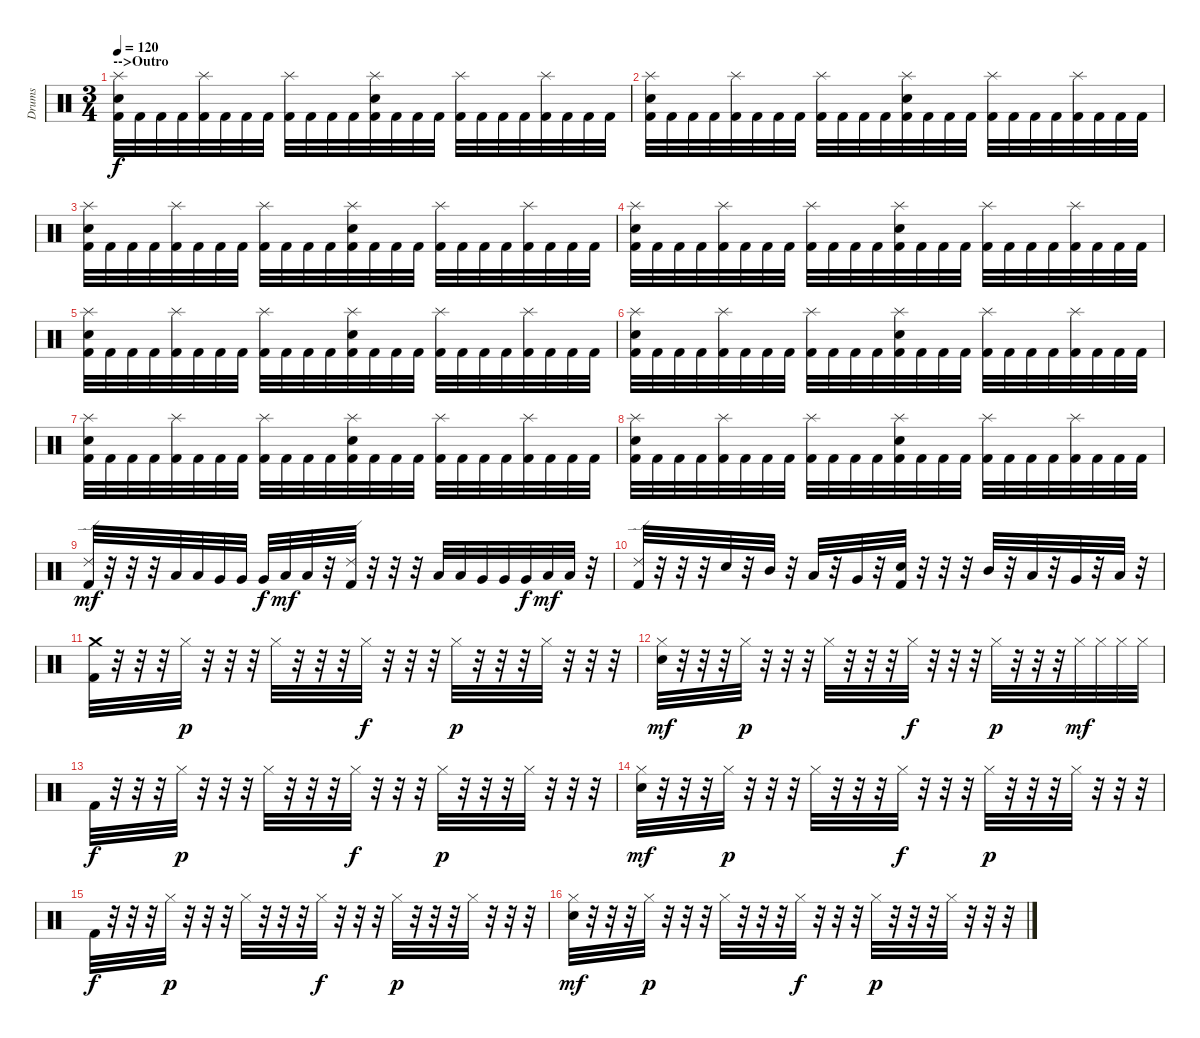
\track ("Drums" "Drums") {instrument percussion}
\staff {score}
\articulation defaults
\ts (3 4)
\section ("" "-->Outro")
\tempo 120
\clef neutral
\ks c
("Kick (hit) 2" "Splash (hit)" "Snare (hit) 2").32{dy f volume 10} "Kick (hit) 2".32 "Kick (hit) 2".32 "Kick (hit) 2".32 ("Kick (hit) 2" "Splash (hit)").32 "Kick (hit) 2".32 "Kick (hit) 2".32 "Kick (hit) 2".32 ("Kick (hit) 2" "Splash (hit)").32 "Kick (hit) 2".32 "Kick (hit) 2".32 "Kick (hit) 2".32 ("Kick (hit) 2" "Splash (hit)" "Snare (hit) 2").32 "Kick (hit) 2".32 "Kick (hit) 2".32 "Kick (hit) 2".32 ("Kick (hit) 2" "Splash (hit)").32 "Kick (hit) 2".32 "Kick (hit) 2".32 "Kick (hit) 2".32 ("Kick (hit) 2" "Splash (hit)").32 "Kick (hit) 2".32 "Kick (hit) 2".32 "Kick (hit) 2".32 |
("Kick (hit) 2" "Splash (hit)" "Snare (hit) 2").32 "Kick (hit) 2".32 "Kick (hit) 2".32 "Kick (hit) 2".32 ("Kick (hit) 2" "Splash (hit)").32 "Kick (hit) 2".32 "Kick (hit) 2".32 "Kick (hit) 2".32 ("Kick (hit) 2" "Splash (hit)").32 "Kick (hit) 2".32 "Kick (hit) 2".32 "Kick (hit) 2".32 ("Kick (hit) 2" "Splash (hit)" "Snare (hit) 2").32 "Kick (hit) 2".32 "Kick (hit) 2".32 "Kick (hit) 2".32 ("Kick (hit) 2" "Splash (hit)").32 "Kick (hit) 2".32 "Kick (hit) 2".32 "Kick (hit) 2".32 ("Kick (hit) 2" "Splash (hit)").32 "Kick (hit) 2".32 "Kick (hit) 2".32 "Kick (hit) 2".32 |
("Kick (hit) 2" "Splash (hit)" "Snare (hit) 2").32 "Kick (hit) 2".32 "Kick (hit) 2".32 "Kick (hit) 2".32 ("Kick (hit) 2" "Splash (hit)").32 "Kick (hit) 2".32 "Kick (hit) 2".32 "Kick (hit) 2".32 ("Kick (hit) 2" "Splash (hit)").32 "Kick (hit) 2".32 "Kick (hit) 2".32 "Kick (hit) 2".32 ("Kick (hit) 2" "Splash (hit)" "Snare (hit) 2").32 "Kick (hit) 2".32 "Kick (hit) 2".32 "Kick (hit) 2".32 ("Kick (hit) 2" "Splash (hit)").32 "Kick (hit) 2".32 "Kick (hit) 2".32 "Kick (hit) 2".32 ("Kick (hit) 2" "Splash (hit)").32 "Kick (hit) 2".32 "Kick (hit) 2".32 "Kick (hit) 2".32 |
("Kick (hit) 2" "Splash (hit)" "Snare (hit) 2").32 "Kick (hit) 2".32 "Kick (hit) 2".32 "Kick (hit) 2".32 ("Kick (hit) 2" "Splash (hit)").32 "Kick (hit) 2".32 "Kick (hit) 2".32 "Kick (hit) 2".32 ("Kick (hit) 2" "Splash (hit)").32 "Kick (hit) 2".32 "Kick (hit) 2".32 "Kick (hit) 2".32 ("Kick (hit) 2" "Splash (hit)" "Snare (hit) 2").32 "Kick (hit) 2".32 "Kick (hit) 2".32 "Kick (hit) 2".32 ("Kick (hit) 2" "Splash (hit)").32 "Kick (hit) 2".32 "Kick (hit) 2".32 "Kick (hit) 2".32 ("Kick (hit) 2" "Splash (hit)").32 "Kick (hit) 2".32 "Kick (hit) 2".32 "Kick (hit) 2".32 |
("Kick (hit) 2" "Splash (hit)" "Snare (hit) 2").32 "Kick (hit) 2".32 "Kick (hit) 2".32 "Kick (hit) 2".32 ("Kick (hit) 2" "Splash (hit)").32 "Kick (hit) 2".32 "Kick (hit) 2".32 "Kick (hit) 2".32 ("Kick (hit) 2" "Splash (hit)").32 "Kick (hit) 2".32 "Kick (hit) 2".32 "Kick (hit) 2".32 ("Kick (hit) 2" "Splash (hit)" "Snare (hit) 2").32 "Kick (hit) 2".32 "Kick (hit) 2".32 "Kick (hit) 2".32 ("Kick (hit) 2" "Splash (hit)").32 "Kick (hit) 2".32 "Kick (hit) 2".32 "Kick (hit) 2".32 ("Kick (hit) 2" "Splash (hit)").32 "Kick (hit) 2".32 "Kick (hit) 2".32 "Kick (hit) 2".32 |
("Kick (hit) 2" "Splash (hit)" "Snare (hit) 2").32 "Kick (hit) 2".32 "Kick (hit) 2".32 "Kick (hit) 2".32 ("Kick (hit) 2" "Splash (hit)").32 "Kick (hit) 2".32 "Kick (hit) 2".32 "Kick (hit) 2".32 ("Kick (hit) 2" "Splash (hit)").32 "Kick (hit) 2".32 "Kick (hit) 2".32 "Kick (hit) 2".32 ("Kick (hit) 2" "Splash (hit)" "Snare (hit) 2").32 "Kick (hit) 2".32 "Kick (hit) 2".32 "Kick (hit) 2".32 ("Kick (hit) 2" "Splash (hit)").32 "Kick (hit) 2".32 "Kick (hit) 2".32 "Kick (hit) 2".32 ("Kick (hit) 2" "Splash (hit)").32 "Kick (hit) 2".32 "Kick (hit) 2".32 "Kick (hit) 2".32 |
("Kick (hit) 2" "Splash (hit)" "Snare (hit) 2").32 "Kick (hit) 2".32 "Kick (hit) 2".32 "Kick (hit) 2".32 ("Kick (hit) 2" "Splash (hit)").32 "Kick (hit) 2".32 "Kick (hit) 2".32 "Kick (hit) 2".32 ("Kick (hit) 2" "Splash (hit)").32 "Kick (hit) 2".32 "Kick (hit) 2".32 "Kick (hit) 2".32 ("Kick (hit) 2" "Splash (hit)" "Snare (hit) 2").32 "Kick (hit) 2".32 "Kick (hit) 2".32 "Kick (hit) 2".32 ("Kick (hit) 2" "Splash (hit)").32 "Kick (hit) 2".32 "Kick (hit) 2".32 "Kick (hit) 2".32 ("Kick (hit) 2" "Splash (hit)").32 "Kick (hit) 2".32 "Kick (hit) 2".32 "Kick (hit) 2".32 |
("Kick (hit) 2" "Splash (hit)" "Snare (hit) 2").32 "Kick (hit) 2".32 "Kick (hit) 2".32 "Kick (hit) 2".32 ("Kick (hit) 2" "Splash (hit)").32 "Kick (hit) 2".32 "Kick (hit) 2".32 "Kick (hit) 2".32 ("Kick (hit) 2" "Splash (hit)").32 "Kick (hit) 2".32 "Kick (hit) 2".32 "Kick (hit) 2".32 ("Kick (hit) 2" "Splash (hit)" "Snare (hit) 2").32 "Kick (hit) 2".32 "Kick (hit) 2".32 "Kick (hit) 2".32 ("Kick (hit) 2" "Splash (hit)").32 "Kick (hit) 2".32 "Kick (hit) 2".32 "Kick (hit) 2".32 ("Kick (hit) 2" "Splash (hit)").32 "Kick (hit) 2".32 "Kick (hit) 2".32 "Kick (hit) 2".32 |
("Kick (hit) 2" "Ride (edge) 2").32{dy mf} r.32 r.32 r.32 "Low Tom (hit)".32 "Low Tom (hit)".32 "Very Low Tom (hit)".32 "Very Low Tom (hit)".32 "Very Low Tom (hit)".32{dy f} "Low Floor Tom (hit)".32{dy mf} "Low Floor Tom (hit)".32 r.32 ("Kick (hit) 2" "Ride (edge) 2").32 r.32 r.32 r.32 "Low Tom (hit)".32 "Low Tom (hit)".32 "Very Low Tom (hit)".32 "Very Low Tom (hit)".32 "Very Low Tom (hit)".32{dy f} "Low Floor Tom (hit)".32{dy mf} "Low Floor Tom (hit)".32 r.32 |
("Kick (hit) 2" "Ride (edge) 2").32 r.32 r.32 r.32 "Snare (hit) 2".32 r.32 "Mid Tom (hit)".32 r.32 "Low Tom (hit)".32 r.32 "Very Low Tom (hit)".32 r.32 ("Kick (hit) 2" "Snare (hit) 2").32 r.32 r.32 r.32 "Mid Tom (hit)".32 r.32 "Low Tom (hit)".32 r.32 "Very Low Tom (hit)".32 r.32 "Low Floor Tom (hit)".32 r.32 |
("Kick (hit) 2" "Crash medium (hit)").32 r.32 r.32 r.32 "Hi-Hat (closed)".32{dy p} r.32 r.32 r.32 "Hi-Hat (closed)".32 r.32 r.32 r.32 "Hi-Hat (closed)".32{dy f} r.32 r.32 r.32 "Hi-Hat (closed)".32{dy p} r.32 r.32 r.32 "Hi-Hat (closed)".32 r.32 r.32 r.32 |
("Hi-Hat (closed)" "Snare (hit) 2").32{dy mf} r.32 r.32 r.32 "Hi-Hat (closed)".32{dy p} r.32 r.32 r.32 "Hi-Hat (closed)".32 r.32 r.32 r.32 "Hi-Hat (closed)".32{dy f} r.32 r.32 r.32 "Hi-Hat (closed)".32{dy p} r.32 r.32 r.32 "Hi-Hat (closed)".32{dy mf} "Hi-Hat (closed)".32 "Hi-Hat (closed)".32 "Hi-Hat (closed)".32 |
"Kick (hit) 2".32{dy f} r.32 r.32 r.32 "Hi-Hat (closed)".32{dy p} r.32 r.32 r.32 "Hi-Hat (closed)".32 r.32 r.32 r.32 "Hi-Hat (closed)".32{dy f} r.32 r.32 r.32 "Hi-Hat (closed)".32{dy p} r.32 r.32 r.32 "Hi-Hat (closed)".32 r.32 r.32 r.32 |
("Hi-Hat (closed)" "Snare (hit) 2").32{dy mf} r.32 r.32 r.32 "Hi-Hat (closed)".32{dy p} r.32 r.32 r.32 "Hi-Hat (closed)".32 r.32 r.32 r.32 "Hi-Hat (closed)".32{dy f} r.32 r.32 r.32 "Hi-Hat (closed)".32{dy p} r.32 r.32 r.32 "Hi-Hat (closed)".32 r.32 r.32 r.32 |
"Kick (hit) 2".32{dy f} r.32 r.32 r.32 "Hi-Hat (closed)".32{dy p} r.32 r.32 r.32 "Hi-Hat (closed)".32 r.32 r.32 r.32 "Hi-Hat (closed)".32{dy f} r.32 r.32 r.32 "Hi-Hat (closed)".32{dy p} r.32 r.32 r.32 "Hi-Hat (closed)".32 r.32 r.32 r.32 |
("Hi-Hat (closed)" "Snare (hit) 2").32{dy mf} r.32 r.32 r.32 "Hi-Hat (closed)".32{dy p} r.32 r.32 r.32 "Hi-Hat (closed)".32 r.32 r.32 r.32 "Hi-Hat (closed)".32{dy f} r.32 r.32 r.32 "Hi-Hat (closed)".32{dy p} r.32 r.32 r.32 "Hi-Hat (closed)".32 r.32 r.32 r.32
